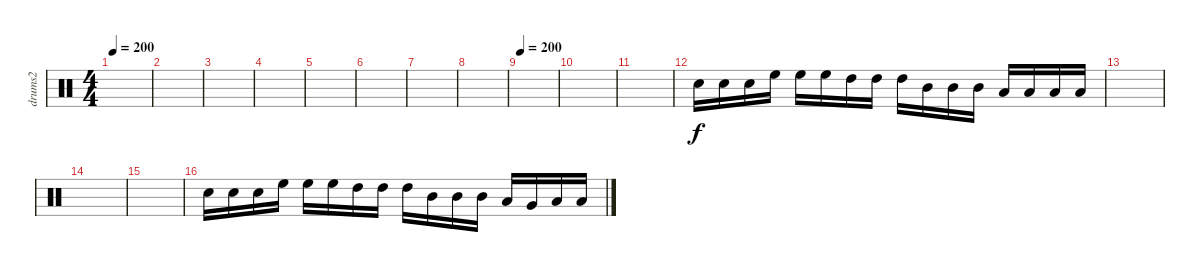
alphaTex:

\track ("drums2" "drums2") {instrument percussion}
\staff {score}
\articulation defaults
\ts (4 4)
\tempo 200
\tempo 180
\tempo 200
\clef neutral
\ks c
|
|
|
|
|
|
|
|
\tempo 200
|
|
|
"Electric Snare (hit)".16 "Electric Snare (hit)".16 "Electric Snare (hit)".16 "High Floor Tom (hit)".16 "High Floor Tom (hit)".16 "High Floor Tom (hit)".16 "High Tom (hit)".16 "High Tom (hit)".16 "High Tom (hit)".16 "Mid Tom (hit)".16 "Mid Tom (hit)".16 "Mid Tom (hit)".16 "Low Tom (hit)".16 "Low Tom (hit)".16 "Low Tom (hit)".16 "Low Tom (hit)".16 |
|
|
|
"Electric Snare (hit)".16 "Electric Snare (hit)".16 "Electric Snare (hit)".16 "High Floor Tom (hit)".16 "High Floor Tom (hit)".16 "High Floor Tom (hit)".16 "High Tom (hit)".16 "High Tom (hit)".16 "High Tom (hit)".16 "Mid Tom (hit)".16 "Mid Tom (hit)".16 "Mid Tom (hit)".16 "Low Tom (hit)".16 "Very Low Tom (hit)".16 "Low Floor Tom (hit)".16 "Low Tom (hit)".16
